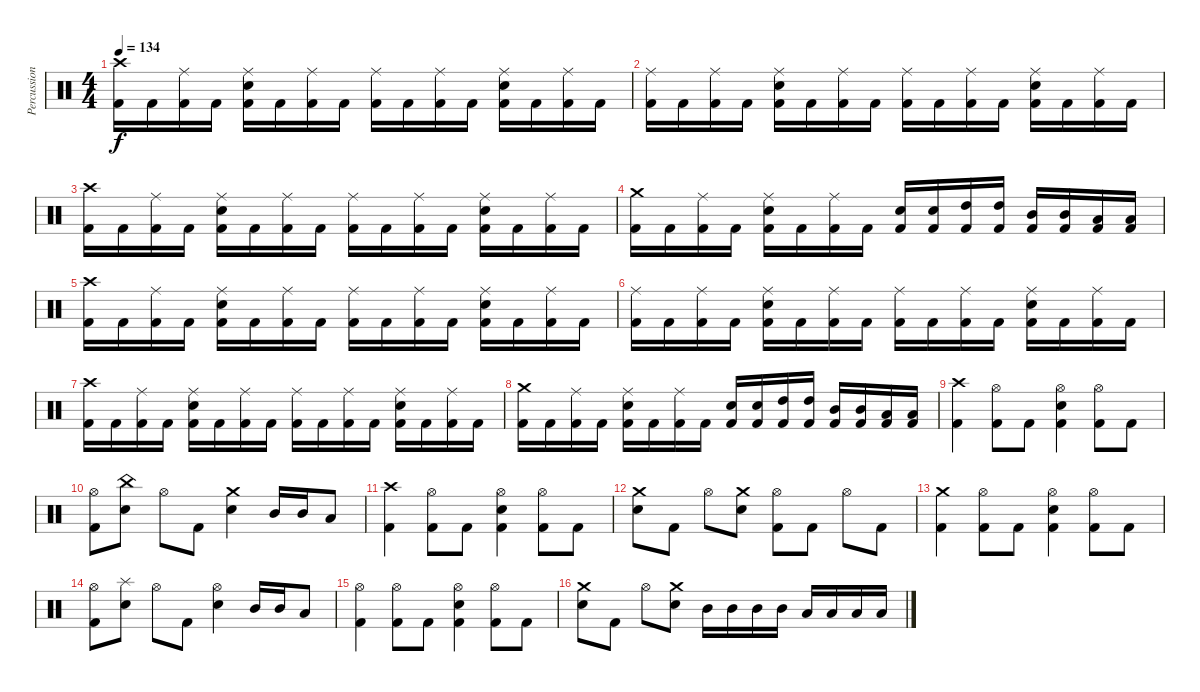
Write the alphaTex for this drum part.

\track ("Percussion" "Percussion") {instrument percussion}
\staff {score}
\articulation defaults
\ts (4 4)
\tempo 134
\clef neutral
\ks c
("Crash high (hit)" "Kick (hit) 2").16{dy f} "Kick (hit) 2".16 ("Ride (middle)" "Kick (hit) 2").16 "Kick (hit) 2".16 ("Ride (middle)" "Snare (hit) 2" "Kick (hit) 2").16 "Kick (hit) 2".16 ("Ride (middle)" "Kick (hit) 2").16 "Kick (hit) 2".16 ("Ride (middle)" "Kick (hit) 2").16 "Kick (hit) 2".16 ("Ride (middle)" "Kick (hit) 2").16 "Kick (hit) 2".16 ("Ride (middle)" "Snare (hit) 2" "Kick (hit) 2").16 "Kick (hit) 2".16 ("Ride (middle)" "Kick (hit) 2").16 "Kick (hit) 2".16 |
("Ride (middle)" "Kick (hit) 2").16 "Kick (hit) 2".16 ("Ride (middle)" "Kick (hit) 2").16 "Kick (hit) 2".16 ("Ride (middle)" "Snare (hit) 2" "Kick (hit) 2").16 "Kick (hit) 2".16 ("Ride (middle)" "Kick (hit) 2").16 "Kick (hit) 2".16 ("Ride (middle)" "Kick (hit) 2").16 "Kick (hit) 2".16 ("Ride (middle)" "Kick (hit) 2").16 "Kick (hit) 2".16 ("Ride (middle)" "Snare (hit) 2" "Kick (hit) 2").16 "Kick (hit) 2".16 ("Ride (middle)" "Kick (hit) 2").16 "Kick (hit) 2".16 |
("Crash high (hit)" "Kick (hit) 2").16 "Kick (hit) 2".16 ("Ride (middle)" "Kick (hit) 2").16 "Kick (hit) 2".16 ("Ride (middle)" "Snare (hit) 2" "Kick (hit) 2").16 "Kick (hit) 2".16 ("Ride (middle)" "Kick (hit) 2").16 "Kick (hit) 2".16 ("Ride (middle)" "Kick (hit) 2").16 "Kick (hit) 2".16 ("Ride (middle)" "Kick (hit) 2").16 "Kick (hit) 2".16 ("Ride (middle)" "Snare (hit) 2" "Kick (hit) 2").16 "Kick (hit) 2".16 ("Ride (middle)" "Kick (hit) 2").16 "Kick (hit) 2".16 |
("Crash medium (hit)" "Kick (hit) 2").16 "Kick (hit) 2".16 ("Ride (middle)" "Kick (hit) 2").16 "Kick (hit) 2".16 ("Ride (middle)" "Snare (hit) 2" "Kick (hit) 2").16 "Kick (hit) 2".16 ("Ride (middle)" "Kick (hit) 2").16 "Kick (hit) 2".16 ("Snare (hit) 2" "Kick (hit) 2").16 ("Snare (hit) 2" "Kick (hit) 2").16 ("High Tom (hit)" "Kick (hit) 2").16 ("High Tom (hit)" "Kick (hit) 2").16 ("Mid Tom (hit)" "Kick (hit) 2").16 ("Mid Tom (hit)" "Kick (hit) 2").16 ("Low Tom (hit)" "Kick (hit) 2").16 ("Low Tom (hit)" "Kick (hit) 2").16 |
("Crash high (hit)" "Kick (hit) 2").16 "Kick (hit) 2".16 ("Ride (middle)" "Kick (hit) 2").16 "Kick (hit) 2".16 ("Ride (middle)" "Snare (hit) 2" "Kick (hit) 2").16 "Kick (hit) 2".16 ("Ride (middle)" "Kick (hit) 2").16 "Kick (hit) 2".16 ("Ride (middle)" "Kick (hit) 2").16 "Kick (hit) 2".16 ("Ride (middle)" "Kick (hit) 2").16 "Kick (hit) 2".16 ("Ride (middle)" "Snare (hit) 2" "Kick (hit) 2").16 "Kick (hit) 2".16 ("Ride (middle)" "Kick (hit) 2").16 "Kick (hit) 2".16 |
("Ride (middle)" "Kick (hit) 2").16 "Kick (hit) 2".16 ("Ride (middle)" "Kick (hit) 2").16 "Kick (hit) 2".16 ("Ride (middle)" "Snare (hit) 2" "Kick (hit) 2").16 "Kick (hit) 2".16 ("Ride (middle)" "Kick (hit) 2").16 "Kick (hit) 2".16 ("Ride (middle)" "Kick (hit) 2").16 "Kick (hit) 2".16 ("Ride (middle)" "Kick (hit) 2").16 "Kick (hit) 2".16 ("Ride (middle)" "Snare (hit) 2" "Kick (hit) 2").16 "Kick (hit) 2".16 ("Ride (middle)" "Kick (hit) 2").16 "Kick (hit) 2".16 |
("Crash high (hit)" "Kick (hit) 2").16 "Kick (hit) 2".16 ("Ride (middle)" "Kick (hit) 2").16 "Kick (hit) 2".16 ("Ride (middle)" "Snare (hit) 2" "Kick (hit) 2").16 "Kick (hit) 2".16 ("Ride (middle)" "Kick (hit) 2").16 "Kick (hit) 2".16 ("Ride (middle)" "Kick (hit) 2").16 "Kick (hit) 2".16 ("Ride (middle)" "Kick (hit) 2").16 "Kick (hit) 2".16 ("Ride (middle)" "Snare (hit) 2" "Kick (hit) 2").16 "Kick (hit) 2".16 ("Ride (middle)" "Kick (hit) 2").16 "Kick (hit) 2".16 |
("Crash medium (hit)" "Kick (hit) 2").16 "Kick (hit) 2".16 ("Ride (middle)" "Kick (hit) 2").16 "Kick (hit) 2".16 ("Ride (middle)" "Snare (hit) 2" "Kick (hit) 2").16 "Kick (hit) 2".16 ("Ride (middle)" "Kick (hit) 2").16 "Kick (hit) 2".16 ("Snare (hit) 2" "Kick (hit) 2").16 ("Snare (hit) 2" "Kick (hit) 2").16 ("High Tom (hit)" "Kick (hit) 2").16 ("High Tom (hit)" "Kick (hit) 2").16 ("Mid Tom (hit)" "Kick (hit) 2").16 ("Mid Tom (hit)" "Kick (hit) 2").16 ("Low Tom (hit)" "Kick (hit) 2").16 ("Low Tom (hit)" "Kick (hit) 2").16 |
("Crash high (hit)" "Kick (hit) 2").4 ("Hi-Hat (open)" "Kick (hit) 2").8 "Kick (hit) 2".8 ("Hi-Hat (open)" "Snare (hit) 2" "Kick (hit) 2").4 ("Hi-Hat (open)" "Kick (hit) 2").8 "Kick (hit) 2".8 |
("Hi-Hat (open)" "Kick (hit) 2").8 ("China (hit)" "Snare (hit) 2").8 "Hi-Hat (open)".8 "Kick (hit) 2".8 ("Crash medium (hit)" "Snare (hit) 2").4 "Mid Tom (hit)".16 "Mid Tom (hit)".16 "Low Tom (hit)".8 |
("Crash high (hit)" "Kick (hit) 2").4 ("Hi-Hat (open)" "Kick (hit) 2").8 "Kick (hit) 2".8 ("Hi-Hat (open)" "Snare (hit) 2" "Kick (hit) 2").4 ("Hi-Hat (open)" "Kick (hit) 2").8 "Kick (hit) 2".8 |
("Crash medium (hit)" "Snare (hit) 2").8 "Kick (hit) 2".8 "Hi-Hat (open)".8 ("Crash medium (hit)" "Snare (hit) 2").8 ("Hi-Hat (open)" "Kick (hit) 2").8 "Kick (hit) 2".8 "Hi-Hat (open)".8 "Kick (hit) 2".8 |
("Crash medium (hit)" "Kick (hit) 2").4 ("Hi-Hat (open)" "Kick (hit) 2").8 "Kick (hit) 2".8 ("Hi-Hat (open)" "Snare (hit) 2" "Kick (hit) 2").4 ("Hi-Hat (open)" "Kick (hit) 2").8 "Kick (hit) 2".8 |
("Hi-Hat (open)" "Kick (hit) 2").8 ("Splash (hit)" "Snare (hit) 2").8 "Hi-Hat (open)".8 "Kick (hit) 2".8 ("Hi-Hat (open)" "Snare (hit) 2").4 "Mid Tom (hit)".16 "Mid Tom (hit)".16 "Low Tom (hit)".8 |
("Hi-Hat (open)" "Kick (hit) 2").4 ("Hi-Hat (open)" "Kick (hit) 2").8 "Kick (hit) 2".8 ("Hi-Hat (open)" "Snare (hit) 2" "Kick (hit) 2").4 ("Hi-Hat (open)" "Kick (hit) 2").8 "Kick (hit) 2".8 |
("Crash medium (hit)" "Snare (hit) 2").8 "Kick (hit) 2".8 "Hi-Hat (open)".8 ("Crash medium (hit)" "Snare (hit) 2").8 "Mid Tom (hit)".16 "Mid Tom (hit)".16 "Mid Tom (hit)".16 "Mid Tom (hit)".16 "Low Tom (hit)".16 "Low Tom (hit)".16 "Low Tom (hit)".16 "Low Tom (hit)".16
